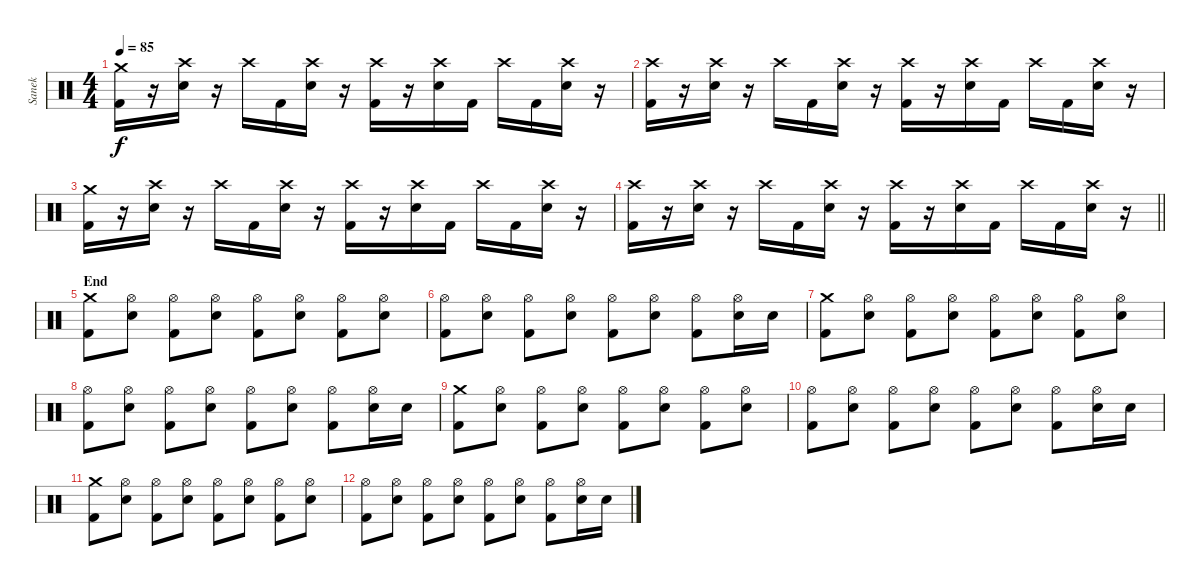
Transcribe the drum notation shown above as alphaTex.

\track ("Sanek" "Sanek") {instrument percussion}
\staff {score}
\articulation defaults
\ts (4 4)
\tempo 85
\clef neutral
\ks c
("Kick (hit) 2" "Crash medium (hit)").16{dy f} r.16 ("Electric Snare (hit)" "Crash high (hit)").16 r.16 "Crash high (hit)".16 "Kick (hit) 2".16 ("Electric Snare (hit)" "Crash high (hit)").16 r.16 ("Kick (hit) 2" "Crash high (hit)").16 r.16 ("Electric Snare (hit)" "Crash high (hit)").16 "Kick (hit) 2".16 "Crash high (hit)".16 "Kick (hit) 2".16 ("Electric Snare (hit)" "Crash high (hit)").16 r.16 |
("Kick (hit) 2" "Crash high (hit)").16 r.16 ("Electric Snare (hit)" "Crash high (hit)").16 r.16 "Crash high (hit)".16 "Kick (hit) 2".16 ("Electric Snare (hit)" "Crash high (hit)").16 r.16 ("Kick (hit) 2" "Crash high (hit)").16 r.16 ("Electric Snare (hit)" "Crash high (hit)").16 "Kick (hit) 2".16 "Crash high (hit)".16 "Kick (hit) 2".16 ("Electric Snare (hit)" "Crash high (hit)").16 r.16 |
("Kick (hit) 2" "Crash medium (hit)").16 r.16 ("Electric Snare (hit)" "Crash high (hit)").16 r.16 "Crash high (hit)".16 "Kick (hit) 2".16 ("Electric Snare (hit)" "Crash high (hit)").16 r.16 ("Kick (hit) 2" "Crash high (hit)").16 r.16 ("Electric Snare (hit)" "Crash high (hit)").16 "Kick (hit) 2".16 "Crash high (hit)".16 "Kick (hit) 2".16 ("Electric Snare (hit)" "Crash high (hit)").16 r.16 |
\barLineRight lightlight
("Kick (hit) 2" "Crash high (hit)").16 r.16 ("Electric Snare (hit)" "Crash high (hit)").16 r.16 "Crash high (hit)".16 "Kick (hit) 2".16 ("Electric Snare (hit)" "Crash high (hit)").16 r.16 ("Kick (hit) 2" "Crash high (hit)").16 r.16 ("Electric Snare (hit)" "Crash high (hit)").16 "Kick (hit) 2".16 "Crash high (hit)".16 "Kick (hit) 2".16 ("Electric Snare (hit)" "Crash high (hit)").16 r.16 |
\section ("" "End")
("Kick (hit) 2" "Crash medium (hit)").8 ("Electric Snare (hit)" "Hi-Hat (open)").8 ("Kick (hit) 2" "Hi-Hat (open)").8 ("Electric Snare (hit)" "Hi-Hat (open)").8 ("Kick (hit) 2" "Hi-Hat (open)").8 ("Electric Snare (hit)" "Hi-Hat (open)").8 ("Kick (hit) 2" "Hi-Hat (open)").8 ("Electric Snare (hit)" "Hi-Hat (open)").8 |
("Kick (hit) 2" "Hi-Hat (open)").8 ("Electric Snare (hit)" "Hi-Hat (open)").8 ("Kick (hit) 2" "Hi-Hat (open)").8 ("Electric Snare (hit)" "Hi-Hat (open)").8 ("Kick (hit) 2" "Hi-Hat (open)").8 ("Electric Snare (hit)" "Hi-Hat (open)").8 ("Kick (hit) 2" "Hi-Hat (open)").8 ("Electric Snare (hit)" "Hi-Hat (open)").16 "Electric Snare (hit)".16 |
("Kick (hit) 2" "Crash medium (hit)").8 ("Electric Snare (hit)" "Hi-Hat (open)").8 ("Kick (hit) 2" "Hi-Hat (open)").8 ("Electric Snare (hit)" "Hi-Hat (open)").8 ("Kick (hit) 2" "Hi-Hat (open)").8 ("Electric Snare (hit)" "Hi-Hat (open)").8 ("Kick (hit) 2" "Hi-Hat (open)").8 ("Electric Snare (hit)" "Hi-Hat (open)").8 |
("Kick (hit) 2" "Hi-Hat (open)").8 ("Electric Snare (hit)" "Hi-Hat (open)").8 ("Kick (hit) 2" "Hi-Hat (open)").8 ("Electric Snare (hit)" "Hi-Hat (open)").8 ("Kick (hit) 2" "Hi-Hat (open)").8 ("Electric Snare (hit)" "Hi-Hat (open)").8 ("Kick (hit) 2" "Hi-Hat (open)").8 ("Electric Snare (hit)" "Hi-Hat (open)").16 "Electric Snare (hit)".16 |
("Kick (hit) 2" "Crash medium (hit)").8 ("Electric Snare (hit)" "Hi-Hat (open)").8 ("Kick (hit) 2" "Hi-Hat (open)").8 ("Electric Snare (hit)" "Hi-Hat (open)").8 ("Kick (hit) 2" "Hi-Hat (open)").8 ("Electric Snare (hit)" "Hi-Hat (open)").8 ("Kick (hit) 2" "Hi-Hat (open)").8 ("Electric Snare (hit)" "Hi-Hat (open)").8 |
("Kick (hit) 2" "Hi-Hat (open)").8 ("Electric Snare (hit)" "Hi-Hat (open)").8 ("Kick (hit) 2" "Hi-Hat (open)").8 ("Electric Snare (hit)" "Hi-Hat (open)").8 ("Kick (hit) 2" "Hi-Hat (open)").8 ("Electric Snare (hit)" "Hi-Hat (open)").8 ("Kick (hit) 2" "Hi-Hat (open)").8 ("Electric Snare (hit)" "Hi-Hat (open)").16 "Electric Snare (hit)".16 |
("Kick (hit) 2" "Crash medium (hit)").8 ("Electric Snare (hit)" "Hi-Hat (open)").8 ("Kick (hit) 2" "Hi-Hat (open)").8 ("Electric Snare (hit)" "Hi-Hat (open)").8 ("Kick (hit) 2" "Hi-Hat (open)").8 ("Electric Snare (hit)" "Hi-Hat (open)").8 ("Kick (hit) 2" "Hi-Hat (open)").8 ("Electric Snare (hit)" "Hi-Hat (open)").8 |
("Kick (hit) 2" "Hi-Hat (open)").8 ("Electric Snare (hit)" "Hi-Hat (open)").8 ("Kick (hit) 2" "Hi-Hat (open)").8 ("Electric Snare (hit)" "Hi-Hat (open)").8 ("Kick (hit) 2" "Hi-Hat (open)").8 ("Electric Snare (hit)" "Hi-Hat (open)").8 ("Kick (hit) 2" "Hi-Hat (open)").8 ("Electric Snare (hit)" "Hi-Hat (open)").16 "Electric Snare (hit)".16
